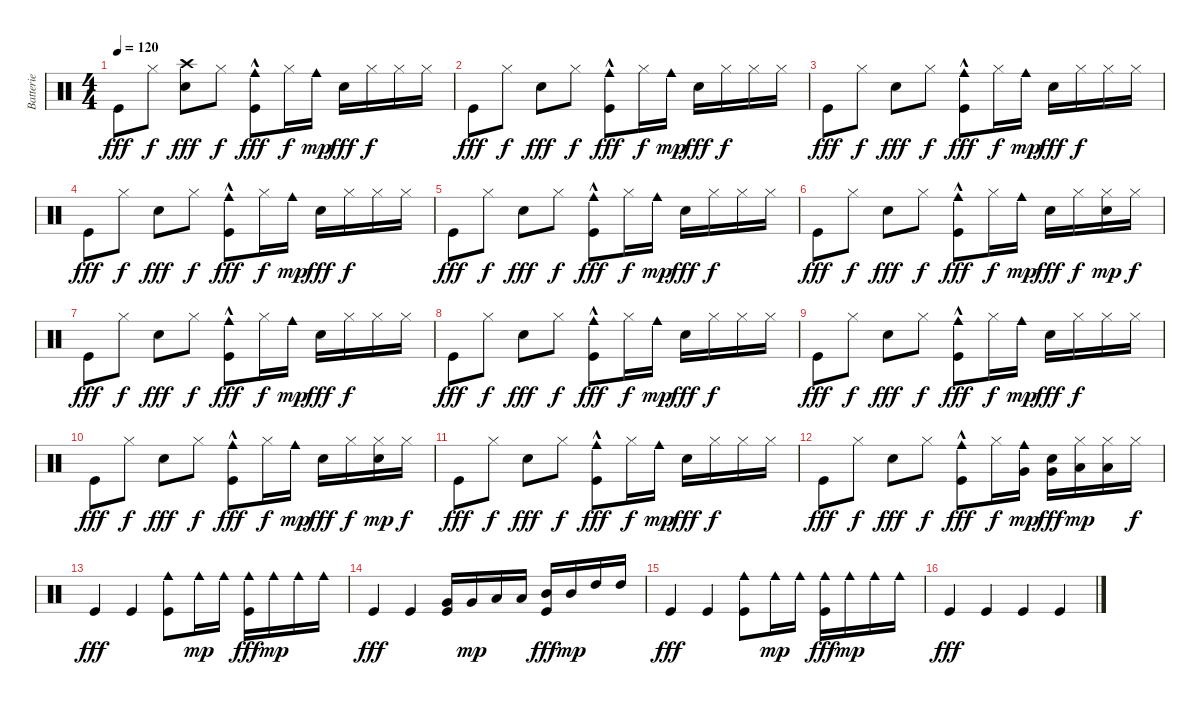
\track ("Batterie" "Batterie") {instrument percussion}
\staff {score}
\articulation defaults
\ts (4 4)
\tempo 120
\clef neutral
\ks c "Kick (hit)".8{dy fff} "Hi-Hat (closed)".8{dy f}
("Crash high (hit)" "Snare (hit) 2").8{dy fff} "Hi-Hat (closed)".8{dy f} ("Cowbell medium (hit)"{hac} "Kick (hit)").8{dy fff} "Hi-Hat (closed)".16{dy f} "Cowbell medium (hit)".16{dy mp} "Snare (hit) 2".16{dy fff} "Hi-Hat (closed)".16{dy f} "Hi-Hat (closed)".16 "Hi-Hat (closed)".16 |
"Kick (hit)".8{dy fff} "Hi-Hat (closed)".8{dy f} "Snare (hit) 2".8{dy fff} "Hi-Hat (closed)".8{dy f} ("Cowbell medium (hit)"{hac} "Kick (hit)").8{dy fff} "Hi-Hat (closed)".16{dy f} "Cowbell medium (hit)".16{dy mp} "Snare (hit) 2".16{dy fff} "Hi-Hat (closed)".16{dy f} "Hi-Hat (closed)".16 "Hi-Hat (closed)".16 |
"Kick (hit)".8{dy fff} "Hi-Hat (closed)".8{dy f} "Snare (hit) 2".8{dy fff} "Hi-Hat (closed)".8{dy f} ("Cowbell medium (hit)"{hac} "Kick (hit)").8{dy fff} "Hi-Hat (closed)".16{dy f} "Cowbell medium (hit)".16{dy mp} "Snare (hit) 2".16{dy fff} "Hi-Hat (closed)".16{dy f} "Hi-Hat (closed)".16 "Hi-Hat (closed)".16 |
"Kick (hit)".8{dy fff} "Hi-Hat (closed)".8{dy f} "Snare (hit) 2".8{dy fff} "Hi-Hat (closed)".8{dy f} ("Cowbell medium (hit)"{hac} "Kick (hit)").8{dy fff} "Hi-Hat (closed)".16{dy f} "Cowbell medium (hit)".16{dy mp} "Snare (hit) 2".16{dy fff} "Hi-Hat (closed)".16{dy f} "Hi-Hat (closed)".16 "Hi-Hat (closed)".16 |
"Kick (hit)".8{dy fff} "Hi-Hat (closed)".8{dy f} "Snare (hit) 2".8{dy fff} "Hi-Hat (closed)".8{dy f} ("Cowbell medium (hit)"{hac} "Kick (hit)").8{dy fff} "Hi-Hat (closed)".16{dy f} "Cowbell medium (hit)".16{dy mp} "Snare (hit) 2".16{dy fff} "Hi-Hat (closed)".16{dy f} "Hi-Hat (closed)".16 "Hi-Hat (closed)".16 |
"Kick (hit)".8{dy fff} "Hi-Hat (closed)".8{dy f} "Snare (hit) 2".8{dy fff} "Hi-Hat (closed)".8{dy f} ("Cowbell medium (hit)"{hac} "Kick (hit)").8{dy fff} "Hi-Hat (closed)".16{dy f} "Cowbell medium (hit)".16{dy mp} "Snare (hit) 2".16{dy fff} "Hi-Hat (closed)".16{dy f} ("Hand Clap (hit)" "Hi-Hat (closed)").16{dy mp} "Hi-Hat (closed)".16{dy f} |
"Kick (hit)".8{dy fff} "Hi-Hat (closed)".8{dy f} "Snare (hit) 2".8{dy fff} "Hi-Hat (closed)".8{dy f} ("Cowbell medium (hit)"{hac} "Kick (hit)").8{dy fff} "Hi-Hat (closed)".16{dy f} "Cowbell medium (hit)".16{dy mp} "Snare (hit) 2".16{dy fff} "Hi-Hat (closed)".16{dy f} "Hi-Hat (closed)".16 "Hi-Hat (closed)".16 |
"Kick (hit)".8{dy fff} "Hi-Hat (closed)".8{dy f} "Snare (hit) 2".8{dy fff} "Hi-Hat (closed)".8{dy f} ("Cowbell medium (hit)"{hac} "Kick (hit)").8{dy fff} "Hi-Hat (closed)".16{dy f} "Cowbell medium (hit)".16{dy mp} "Snare (hit) 2".16{dy fff} "Hi-Hat (closed)".16{dy f} "Hi-Hat (closed)".16 "Hi-Hat (closed)".16 |
"Kick (hit)".8{dy fff} "Hi-Hat (closed)".8{dy f} "Snare (hit) 2".8{dy fff} "Hi-Hat (closed)".8{dy f} ("Cowbell medium (hit)"{hac} "Kick (hit)").8{dy fff} "Hi-Hat (closed)".16{dy f} "Cowbell medium (hit)".16{dy mp} "Snare (hit) 2".16{dy fff} "Hi-Hat (closed)".16{dy f} "Hi-Hat (closed)".16 "Hi-Hat (closed)".16 |
"Kick (hit)".8{dy fff} "Hi-Hat (closed)".8{dy f} "Snare (hit) 2".8{dy fff} "Hi-Hat (closed)".8{dy f} ("Cowbell medium (hit)"{hac} "Kick (hit)").8{dy fff} "Hi-Hat (closed)".16{dy f} "Cowbell medium (hit)".16{dy mp} "Snare (hit) 2".16{dy fff} "Hi-Hat (closed)".16{dy f} ("Hand Clap (hit)" "Hi-Hat (closed)").16{dy mp} "Hi-Hat (closed)".16{dy f} |
"Kick (hit)".8{dy fff} "Hi-Hat (closed)".8{dy f} "Snare (hit) 2".8{dy fff} "Hi-Hat (closed)".8{dy f} ("Cowbell medium (hit)"{hac} "Kick (hit)").8{dy fff} "Hi-Hat (closed)".16{dy f} "Cowbell medium (hit)".16{dy mp} "Snare (hit) 2".16{dy fff} "Hi-Hat (closed)".16{dy f} "Hi-Hat (closed)".16 "Hi-Hat (closed)".16 |
"Kick (hit)".8{dy fff} "Hi-Hat (closed)".8{dy f} "Snare (hit) 2".8{dy fff} "Hi-Hat (closed)".8{dy f} ("Cowbell medium (hit)"{hac} "Kick (hit)").8{dy fff} "Hi-Hat (closed)".16{dy f} ("Very Low Tom (hit)" "Cowbell medium (hit)").16{dy mp} ("Very Low Tom (hit)" "Snare (hit) 2").16{dy fff} ("Low Floor Tom (hit)" "Hi-Hat (closed)").16{dy mp} ("Low Floor Tom (hit)" "Hi-Hat (closed)").16 "Hi-Hat (closed)".16{dy f} |
"Kick (hit)".4{dy fff} "Kick (hit)".4 ("Cowbell medium (hit)" "Kick (hit)").8 "Cowbell medium (hit)".16{dy mp} "Cowbell medium (hit)".16 ("Cowbell medium (hit)" "Kick (hit)").16{dy fff} "Cowbell medium (hit)".16{dy mp} "Cowbell medium (hit)".16 "Cowbell medium (hit)".16 |
"Kick (hit)".4{dy fff} "Kick (hit)".4 ("Very Low Tom (hit)" "Kick (hit)").16 "Very Low Tom (hit)".16{dy mp} "Low Tom (hit)".16 "Low Tom (hit)".16 ("Mid Tom (hit)" "Kick (hit)").16{dy fff} "Mid Tom (hit)".16{dy mp} "High Tom (hit)".16 "High Tom (hit)".16 |
"Kick (hit)".4{dy fff} "Kick (hit)".4 ("Cowbell medium (hit)" "Kick (hit)").8 "Cowbell medium (hit)".16{dy mp} "Cowbell medium (hit)".16 ("Cowbell medium (hit)" "Kick (hit)").16{dy fff} "Cowbell medium (hit)".16{dy mp} "Cowbell medium (hit)".16 "Cowbell medium (hit)".16 |
"Kick (hit)".4{dy fff} "Kick (hit)".4 "Kick (hit)".4 "Kick (hit)".4
